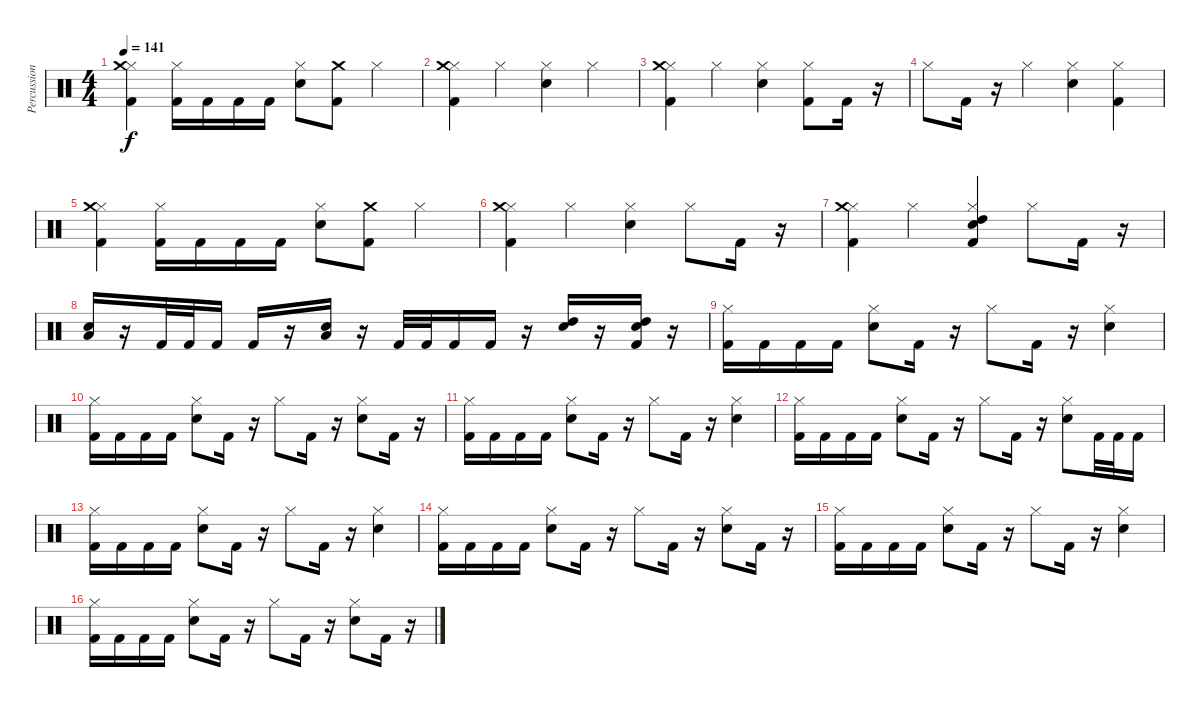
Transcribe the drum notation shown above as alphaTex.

\track ("Percussion" "Percussion") {instrument percussion}
\staff {score}
\articulation defaults
\ts (4 4)
\tempo 141
\clef neutral
\ks c
("Kick (hit) 2" "Hi-Hat (closed)" "Crash medium (hit)").4{dy f} ("Kick (hit) 2" "Hi-Hat (closed)").16 "Kick (hit) 2".16 "Kick (hit) 2".16 "Kick (hit) 2".16 ("Snare (hit) 2" "Hi-Hat (closed)").8 ("Kick (hit) 2" "Crash medium (hit)").8 "Hi-Hat (closed)".4 |
("Kick (hit) 2" "Hi-Hat (closed)" "Crash medium (hit)").4 "Hi-Hat (closed)".4 ("Snare (hit) 2" "Hi-Hat (closed)").4 "Hi-Hat (closed)".4 |
("Kick (hit) 2" "Hi-Hat (closed)" "Crash medium (hit)").4 "Hi-Hat (closed)".4 ("Snare (hit) 2" "Hi-Hat (closed)").4 ("Kick (hit) 2" "Hi-Hat (closed)").8 "Kick (hit) 2".16 r.16 |
"Hi-Hat (closed)".8 "Kick (hit) 2".16 r.16 "Hi-Hat (closed)".4 ("Snare (hit) 2" "Hi-Hat (closed)").4 ("Kick (hit) 2" "Hi-Hat (closed)").4 |
("Kick (hit) 2" "Hi-Hat (closed)" "Crash medium (hit)").4 ("Kick (hit) 2" "Hi-Hat (closed)").16 "Kick (hit) 2".16 "Kick (hit) 2".16 "Kick (hit) 2".16 ("Snare (hit) 2" "Hi-Hat (closed)").8 ("Kick (hit) 2" "Crash medium (hit)").8 "Hi-Hat (closed)".4 |
("Kick (hit) 2" "Hi-Hat (closed)" "Crash medium (hit)").4 "Hi-Hat (closed)".4 ("Snare (hit) 2" "Hi-Hat (closed)").4 "Hi-Hat (closed)".8 "Kick (hit) 2".16 r.16 |
("Kick (hit) 2" "Hi-Hat (closed)" "Crash medium (hit)").4 "Hi-Hat (closed)".4 ("Kick (hit) 2" "Snare (hit) 2" "Hi-Hat (closed)" "High Tom (hit)").4 "Hi-Hat (closed)".8 "Kick (hit) 2".16 r.16 |
("Snare (hit) 2" "Low Floor Tom (hit)").16 r.16 "Kick (hit) 2".32 "Kick (hit) 2".32 "Kick (hit) 2".16 "Kick (hit) 2".16 r.16 ("Snare (hit) 2" "Low Floor Tom (hit)").16 r.16 "Kick (hit) 2".32 "Kick (hit) 2".32 "Kick (hit) 2".16 "Kick (hit) 2".16 r.16 ("Snare (hit) 2" "High Tom (hit)").16 r.16 ("Kick (hit) 2" "Snare (hit) 2" "High Tom (hit)").16 r.16 |
("Kick (hit) 2" "Hi-Hat (closed)").16 "Kick (hit) 2".16 "Kick (hit) 2".16 "Kick (hit) 2".16 ("Snare (hit) 2" "Hi-Hat (closed)").8 "Kick (hit) 2".16 r.16 "Hi-Hat (closed)".8 "Kick (hit) 2".16 r.16 ("Snare (hit) 2" "Hi-Hat (closed)").4 |
("Kick (hit) 2" "Hi-Hat (closed)").16 "Kick (hit) 2".16 "Kick (hit) 2".16 "Kick (hit) 2".16 ("Snare (hit) 2" "Hi-Hat (closed)").8 "Kick (hit) 2".16 r.16 "Hi-Hat (closed)".8 "Kick (hit) 2".16 r.16 ("Snare (hit) 2" "Hi-Hat (closed)").8 "Kick (hit) 2".16 r.16 |
("Kick (hit) 2" "Hi-Hat (closed)").16 "Kick (hit) 2".16 "Kick (hit) 2".16 "Kick (hit) 2".16 ("Snare (hit) 2" "Hi-Hat (closed)").8 "Kick (hit) 2".16 r.16 "Hi-Hat (closed)".8 "Kick (hit) 2".16 r.16 ("Snare (hit) 2" "Hi-Hat (closed)").4 |
("Kick (hit) 2" "Hi-Hat (closed)").16 "Kick (hit) 2".16 "Kick (hit) 2".16 "Kick (hit) 2".16 ("Snare (hit) 2" "Hi-Hat (closed)").8 "Kick (hit) 2".16 r.16 "Hi-Hat (closed)".8 "Kick (hit) 2".16 r.16 ("Snare (hit) 2" "Hi-Hat (closed)").8 "Kick (hit) 2".32 "Kick (hit) 2".32 "Kick (hit) 2".16 |
("Kick (hit) 2" "Hi-Hat (closed)").16 "Kick (hit) 2".16 "Kick (hit) 2".16 "Kick (hit) 2".16 ("Snare (hit) 2" "Hi-Hat (closed)").8 "Kick (hit) 2".16 r.16 "Hi-Hat (closed)".8 "Kick (hit) 2".16 r.16 ("Snare (hit) 2" "Hi-Hat (closed)").4 |
("Kick (hit) 2" "Hi-Hat (closed)").16 "Kick (hit) 2".16 "Kick (hit) 2".16 "Kick (hit) 2".16 ("Snare (hit) 2" "Hi-Hat (closed)").8 "Kick (hit) 2".16 r.16 "Hi-Hat (closed)".8 "Kick (hit) 2".16 r.16 ("Snare (hit) 2" "Hi-Hat (closed)").8 "Kick (hit) 2".16 r.16 |
("Kick (hit) 2" "Hi-Hat (closed)").16 "Kick (hit) 2".16 "Kick (hit) 2".16 "Kick (hit) 2".16 ("Snare (hit) 2" "Hi-Hat (closed)").8 "Kick (hit) 2".16 r.16 "Hi-Hat (closed)".8 "Kick (hit) 2".16 r.16 ("Snare (hit) 2" "Hi-Hat (closed)").4 |
("Kick (hit) 2" "Hi-Hat (closed)").16 "Kick (hit) 2".16 "Kick (hit) 2".16 "Kick (hit) 2".16 ("Snare (hit) 2" "Hi-Hat (closed)").8 "Kick (hit) 2".16 r.16 "Hi-Hat (closed)".8 "Kick (hit) 2".16 r.16 ("Snare (hit) 2" "Hi-Hat (closed)").8 "Kick (hit) 2".16 r.16
